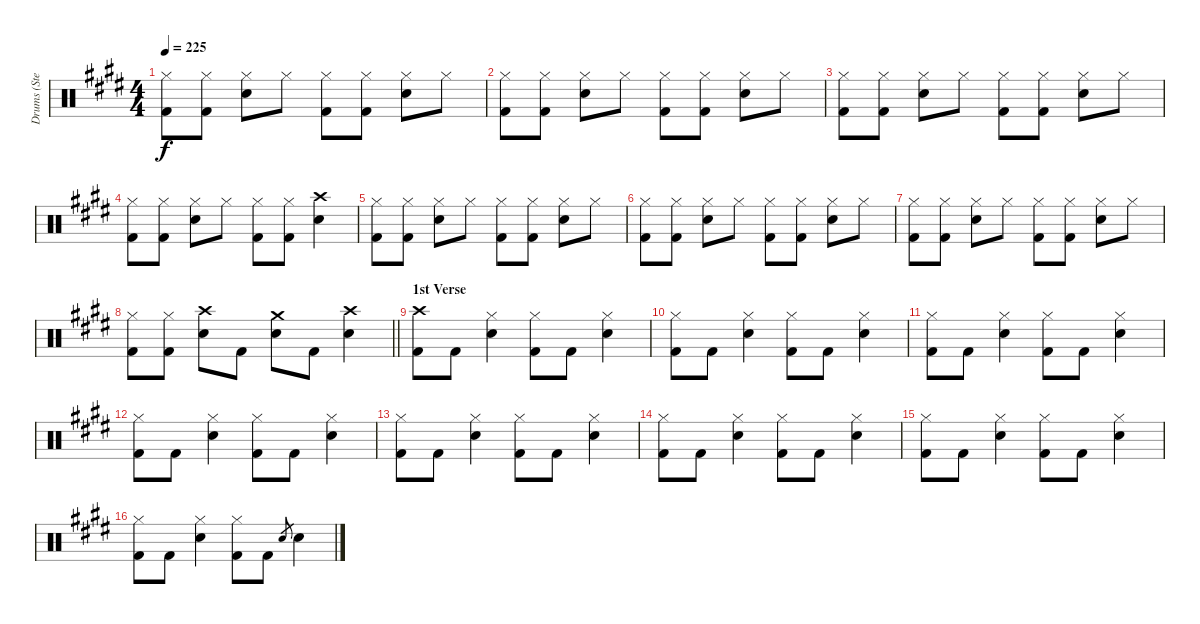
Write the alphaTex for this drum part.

\track ("Drums (Steven)" "Drums (Ste") {instrument percussion}
\staff {score}
\articulation defaults
\ts (4 4)
\tempo 225
\clef neutral
\ks e
("Hi-Hat (closed)" "Kick (hit) 2").8{dy f} ("Hi-Hat (closed)" "Kick (hit) 2").8 ("Hi-Hat (closed)" "Snare (hit) 2").8 "Hi-Hat (closed)".8 ("Hi-Hat (closed)" "Kick (hit) 2").8 ("Hi-Hat (closed)" "Kick (hit) 2").8 ("Hi-Hat (closed)" "Snare (hit) 2").8 "Hi-Hat (closed)".8 |
("Hi-Hat (closed)" "Kick (hit) 2").8 ("Hi-Hat (closed)" "Kick (hit) 2").8 ("Hi-Hat (closed)" "Snare (hit) 2").8 "Hi-Hat (closed)".8 ("Hi-Hat (closed)" "Kick (hit) 2").8 ("Hi-Hat (closed)" "Kick (hit) 2").8 ("Hi-Hat (closed)" "Snare (hit) 2").8 "Hi-Hat (closed)".8 |
("Hi-Hat (closed)" "Kick (hit) 2").8 ("Hi-Hat (closed)" "Kick (hit) 2").8 ("Hi-Hat (closed)" "Snare (hit) 2").8 "Hi-Hat (closed)".8 ("Hi-Hat (closed)" "Kick (hit) 2").8 ("Hi-Hat (closed)" "Kick (hit) 2").8 ("Hi-Hat (closed)" "Snare (hit) 2").8 "Hi-Hat (closed)".8 |
("Hi-Hat (closed)" "Kick (hit) 2").8 ("Hi-Hat (closed)" "Kick (hit) 2").8 ("Hi-Hat (closed)" "Snare (hit) 2").8 "Hi-Hat (closed)".8 ("Hi-Hat (closed)" "Kick (hit) 2").8 ("Hi-Hat (closed)" "Kick (hit) 2").8 ("Crash high (hit)" "Snare (hit) 2").4 |
("Hi-Hat (closed)" "Kick (hit) 2").8 ("Hi-Hat (closed)" "Kick (hit) 2").8 ("Hi-Hat (closed)" "Snare (hit) 2").8 "Hi-Hat (closed)".8 ("Hi-Hat (closed)" "Kick (hit) 2").8 ("Hi-Hat (closed)" "Kick (hit) 2").8 ("Hi-Hat (closed)" "Snare (hit) 2").8 "Hi-Hat (closed)".8 |
("Hi-Hat (closed)" "Kick (hit) 2").8 ("Hi-Hat (closed)" "Kick (hit) 2").8 ("Hi-Hat (closed)" "Snare (hit) 2").8 "Hi-Hat (closed)".8 ("Hi-Hat (closed)" "Kick (hit) 2").8 ("Hi-Hat (closed)" "Kick (hit) 2").8 ("Hi-Hat (closed)" "Snare (hit) 2").8 "Hi-Hat (closed)".8 |
("Hi-Hat (closed)" "Kick (hit) 2").8 ("Hi-Hat (closed)" "Kick (hit) 2").8 ("Hi-Hat (closed)" "Snare (hit) 2").8 "Hi-Hat (closed)".8 ("Hi-Hat (closed)" "Kick (hit) 2").8 ("Hi-Hat (closed)" "Kick (hit) 2").8 ("Hi-Hat (closed)" "Snare (hit) 2").8 "Hi-Hat (closed)".8 |
\barLineRight lightlight
("Hi-Hat (closed)" "Kick (hit) 2").8 ("Hi-Hat (closed)" "Kick (hit) 2").8 ("Crash high (hit)" "Snare (hit) 2").8 "Kick (hit) 2".8 ("Crash medium (hit)" "Snare (hit) 2").8 "Kick (hit) 2".8 ("Crash high (hit)" "Snare (hit) 2").4 |
\section ("" "1st Verse")
("Crash high (hit)" "Kick (hit) 2").8 "Kick (hit) 2".8 ("Hi-Hat (closed)" "Snare (hit) 2").4 ("Hi-Hat (closed)" "Kick (hit) 2").8 "Kick (hit) 2".8 ("Hi-Hat (closed)" "Snare (hit) 2").4 |
("Hi-Hat (closed)" "Kick (hit) 2").8 "Kick (hit) 2".8 ("Hi-Hat (closed)" "Snare (hit) 2").4 ("Hi-Hat (closed)" "Kick (hit) 2").8 "Kick (hit) 2".8 ("Hi-Hat (closed)" "Snare (hit) 2").4 |
("Hi-Hat (closed)" "Kick (hit) 2").8 "Kick (hit) 2".8 ("Hi-Hat (closed)" "Snare (hit) 2").4 ("Hi-Hat (closed)" "Kick (hit) 2").8 "Kick (hit) 2".8 ("Hi-Hat (closed)" "Snare (hit) 2").4 |
("Hi-Hat (closed)" "Kick (hit) 2").8 "Kick (hit) 2".8 ("Hi-Hat (closed)" "Snare (hit) 2").4 ("Hi-Hat (closed)" "Kick (hit) 2").8 "Kick (hit) 2".8 ("Hi-Hat (closed)" "Snare (hit) 2").4 |
("Hi-Hat (closed)" "Kick (hit) 2").8 "Kick (hit) 2".8 ("Hi-Hat (closed)" "Snare (hit) 2").4 ("Hi-Hat (closed)" "Kick (hit) 2").8 "Kick (hit) 2".8 ("Hi-Hat (closed)" "Snare (hit) 2").4 |
("Hi-Hat (closed)" "Kick (hit) 2").8 "Kick (hit) 2".8 ("Hi-Hat (closed)" "Snare (hit) 2").4 ("Hi-Hat (closed)" "Kick (hit) 2").8 "Kick (hit) 2".8 ("Hi-Hat (closed)" "Snare (hit) 2").4 |
("Hi-Hat (closed)" "Kick (hit) 2").8 "Kick (hit) 2".8 ("Hi-Hat (closed)" "Snare (hit) 2").4 ("Hi-Hat (closed)" "Kick (hit) 2").8 "Kick (hit) 2".8 ("Hi-Hat (closed)" "Snare (hit) 2").4 |
("Hi-Hat (closed)" "Kick (hit) 2").8 "Kick (hit) 2".8 ("Hi-Hat (closed)" "Snare (hit) 2").4 ("Hi-Hat (closed)" "Kick (hit) 2").8 "Kick (hit) 2".8 "Snare (hit) 2".8{gr} "Snare (hit) 2".4
